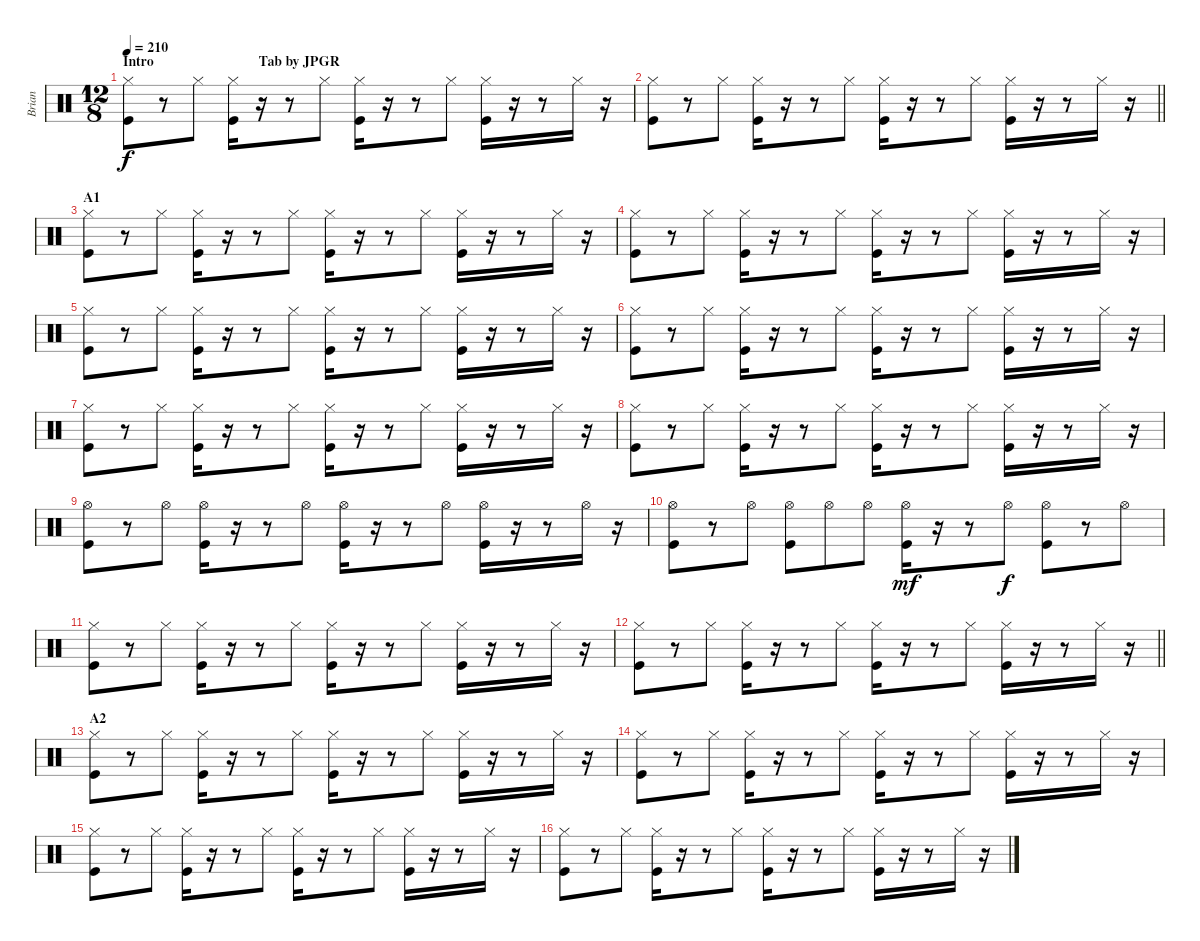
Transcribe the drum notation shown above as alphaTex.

\track ("Brian" "Brian") {instrument percussion}
\staff {score}
\articulation defaults
\ts (12 8)
\section ("" "Intro                              Tab by JPGR")
\tempo 210
\clef neutral
\ks c
("Hi-Hat (closed)" "Kick (hit)").8{dy f} r.8 "Hi-Hat (closed)".8 ("Hi-Hat (closed)" "Kick (hit)").16 r.16 r.8 "Hi-Hat (closed)".8 ("Hi-Hat (closed)" "Kick (hit)").16 r.16 r.8 "Hi-Hat (closed)".8 ("Hi-Hat (closed)" "Kick (hit)").16 r.16 r.8 "Hi-Hat (closed)".16 r.16 |
\barLineRight lightlight
("Hi-Hat (closed)" "Kick (hit)").8 r.8 "Hi-Hat (closed)".8 ("Hi-Hat (closed)" "Kick (hit)").16 r.16 r.8 "Hi-Hat (closed)".8 ("Hi-Hat (closed)" "Kick (hit)").16 r.16 r.8 "Hi-Hat (closed)".8 ("Hi-Hat (closed)" "Kick (hit)").16 r.16 r.8 "Hi-Hat (closed)".16 r.16 |
\section ("" "A1")
("Hi-Hat (closed)" "Kick (hit)").8 r.8 "Hi-Hat (closed)".8 ("Hi-Hat (closed)" "Kick (hit)").16 r.16 r.8 "Hi-Hat (closed)".8 ("Hi-Hat (closed)" "Kick (hit)").16 r.16 r.8 "Hi-Hat (closed)".8 ("Hi-Hat (closed)" "Kick (hit)").16 r.16 r.8 "Hi-Hat (closed)".16 r.16 |
("Hi-Hat (closed)" "Kick (hit)").8 r.8 "Hi-Hat (closed)".8 ("Hi-Hat (closed)" "Kick (hit)").16 r.16 r.8 "Hi-Hat (closed)".8 ("Hi-Hat (closed)" "Kick (hit)").16 r.16 r.8 "Hi-Hat (closed)".8 ("Hi-Hat (closed)" "Kick (hit)").16 r.16 r.8 "Hi-Hat (closed)".16 r.16 |
("Hi-Hat (closed)" "Kick (hit)").8 r.8 "Hi-Hat (closed)".8 ("Hi-Hat (closed)" "Kick (hit)").16 r.16 r.8 "Hi-Hat (closed)".8 ("Hi-Hat (closed)" "Kick (hit)").16 r.16 r.8 "Hi-Hat (closed)".8 ("Hi-Hat (closed)" "Kick (hit)").16 r.16 r.8 "Hi-Hat (closed)".16 r.16 |
("Hi-Hat (closed)" "Kick (hit)").8 r.8 "Hi-Hat (closed)".8 ("Hi-Hat (closed)" "Kick (hit)").16 r.16 r.8 "Hi-Hat (closed)".8 ("Hi-Hat (closed)" "Kick (hit)").16 r.16 r.8 "Hi-Hat (closed)".8 ("Hi-Hat (closed)" "Kick (hit)").16 r.16 r.8 "Hi-Hat (closed)".16 r.16 |
("Hi-Hat (closed)" "Kick (hit)").8 r.8 "Hi-Hat (closed)".8 ("Hi-Hat (closed)" "Kick (hit)").16 r.16 r.8 "Hi-Hat (closed)".8 ("Hi-Hat (closed)" "Kick (hit)").16 r.16 r.8 "Hi-Hat (closed)".8 ("Hi-Hat (closed)" "Kick (hit)").16 r.16 r.8 "Hi-Hat (closed)".16 r.16 |
("Hi-Hat (closed)" "Kick (hit)").8 r.8 "Hi-Hat (closed)".8 ("Hi-Hat (closed)" "Kick (hit)").16 r.16 r.8 "Hi-Hat (closed)".8 ("Hi-Hat (closed)" "Kick (hit)").16 r.16 r.8 "Hi-Hat (closed)".8 ("Hi-Hat (closed)" "Kick (hit)").16 r.16 r.8 "Hi-Hat (closed)".16 r.16 |
("Hi-Hat (open)" "Kick (hit)").8 r.8 "Hi-Hat (open)".8 ("Hi-Hat (open)" "Kick (hit)").16 r.16 r.8 "Hi-Hat (open)".8 ("Hi-Hat (open)" "Kick (hit)").16 r.16 r.8 "Hi-Hat (open)".8 ("Hi-Hat (open)" "Kick (hit)").16 r.16 r.8 "Hi-Hat (open)".16 r.16 |
("Hi-Hat (open)" "Kick (hit)").8 r.8 "Hi-Hat (open)".8 ("Hi-Hat (open)" "Kick (hit)").8 "Hi-Hat (open)".8 "Hi-Hat (open)".8 ("Hi-Hat (open)" "Kick (hit)").16{dy mf} r.16 r.8 "Hi-Hat (open)".8{dy f} ("Hi-Hat (open)" "Kick (hit)").8 r.8 "Hi-Hat (open)".8 |
("Hi-Hat (closed)" "Kick (hit)").8 r.8 "Hi-Hat (closed)".8 ("Hi-Hat (closed)" "Kick (hit)").16 r.16 r.8 "Hi-Hat (closed)".8 ("Hi-Hat (closed)" "Kick (hit)").16 r.16 r.8 "Hi-Hat (closed)".8 ("Hi-Hat (closed)" "Kick (hit)").16 r.16 r.8 "Hi-Hat (closed)".16 r.16 |
\barLineRight lightlight
("Hi-Hat (closed)" "Kick (hit)").8 r.8 "Hi-Hat (closed)".8 ("Hi-Hat (closed)" "Kick (hit)").16 r.16 r.8 "Hi-Hat (closed)".8 ("Hi-Hat (closed)" "Kick (hit)").16 r.16 r.8 "Hi-Hat (closed)".8 ("Hi-Hat (closed)" "Kick (hit)").16 r.16 r.8 "Hi-Hat (closed)".16 r.16 |
\section ("" "A2")
("Hi-Hat (closed)" "Kick (hit)").8 r.8 "Hi-Hat (closed)".8 ("Hi-Hat (closed)" "Kick (hit)").16 r.16 r.8 "Hi-Hat (closed)".8 ("Hi-Hat (closed)" "Kick (hit)").16 r.16 r.8 "Hi-Hat (closed)".8 ("Hi-Hat (closed)" "Kick (hit)").16 r.16 r.8 "Hi-Hat (closed)".16 r.16 |
("Hi-Hat (closed)" "Kick (hit)").8 r.8 "Hi-Hat (closed)".8 ("Hi-Hat (closed)" "Kick (hit)").16 r.16 r.8 "Hi-Hat (closed)".8 ("Hi-Hat (closed)" "Kick (hit)").16 r.16 r.8 "Hi-Hat (closed)".8 ("Hi-Hat (closed)" "Kick (hit)").16 r.16 r.8 "Hi-Hat (closed)".16 r.16 |
("Hi-Hat (closed)" "Kick (hit)").8 r.8 "Hi-Hat (closed)".8 ("Hi-Hat (closed)" "Kick (hit)").16 r.16 r.8 "Hi-Hat (closed)".8 ("Hi-Hat (closed)" "Kick (hit)").16 r.16 r.8 "Hi-Hat (closed)".8 ("Hi-Hat (closed)" "Kick (hit)").16 r.16 r.8 "Hi-Hat (closed)".16 r.16 |
("Hi-Hat (closed)" "Kick (hit)").8 r.8 "Hi-Hat (closed)".8 ("Hi-Hat (closed)" "Kick (hit)").16 r.16 r.8 "Hi-Hat (closed)".8 ("Hi-Hat (closed)" "Kick (hit)").16 r.16 r.8 "Hi-Hat (closed)".8 ("Hi-Hat (closed)" "Kick (hit)").16 r.16 r.8 "Hi-Hat (closed)".16 r.16
